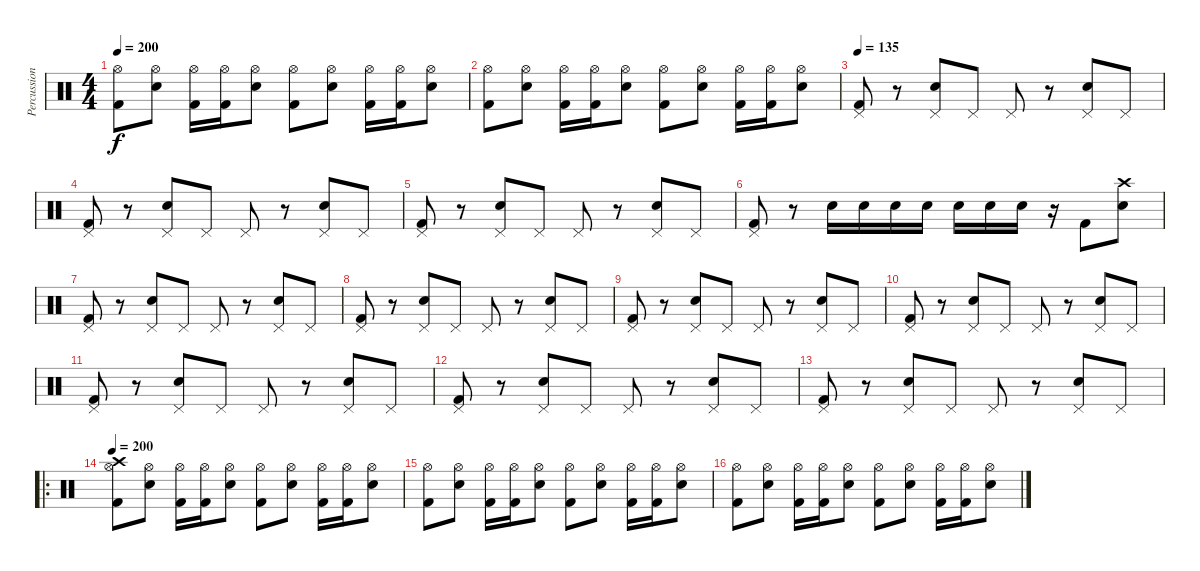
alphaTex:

\track ("Percussions" "Percussion") {instrument percussion}
\staff {score}
\articulation defaults
\ts (4 4)
\tempo 200
\clef neutral
\ks c
("Hi-Hat (open)" "Kick (hit) 2").8{dy f} ("Hi-Hat (open)" "Electric Snare (hit)").8 ("Hi-Hat (open)" "Kick (hit) 2").16 ("Hi-Hat (open)" "Kick (hit) 2").16 ("Hi-Hat (open)" "Electric Snare (hit)").8 ("Hi-Hat (open)" "Kick (hit) 2").8 ("Hi-Hat (open)" "Electric Snare (hit)").8 ("Hi-Hat (open)" "Kick (hit) 2").16 ("Hi-Hat (open)" "Kick (hit) 2").16 ("Hi-Hat (open)" "Electric Snare (hit)").8 |
("Hi-Hat (open)" "Kick (hit) 2").8 ("Hi-Hat (open)" "Electric Snare (hit)").8 ("Hi-Hat (open)" "Kick (hit) 2").16 ("Hi-Hat (open)" "Kick (hit) 2").16 ("Hi-Hat (open)" "Electric Snare (hit)").8 ("Hi-Hat (open)" "Kick (hit) 2").8 ("Hi-Hat (open)" "Electric Snare (hit)").8 ("Hi-Hat (open)" "Kick (hit) 2").16 ("Hi-Hat (open)" "Kick (hit) 2").16 ("Hi-Hat (open)" "Electric Snare (hit)").8 |
\tempo 135
("Pedal Hi-Hat (hit)" "Kick (hit) 2").8 r.8 ("Pedal Hi-Hat (hit)" "Electric Snare (hit)").8 "Pedal Hi-Hat (hit)".8 "Pedal Hi-Hat (hit)".8 r.8 ("Pedal Hi-Hat (hit)" "Electric Snare (hit)").8 "Pedal Hi-Hat (hit)".8 |
("Pedal Hi-Hat (hit)" "Kick (hit) 2").8 r.8 ("Pedal Hi-Hat (hit)" "Electric Snare (hit)").8 "Pedal Hi-Hat (hit)".8 "Pedal Hi-Hat (hit)".8 r.8 ("Pedal Hi-Hat (hit)" "Electric Snare (hit)").8 "Pedal Hi-Hat (hit)".8 |
("Pedal Hi-Hat (hit)" "Kick (hit) 2").8 r.8 ("Pedal Hi-Hat (hit)" "Electric Snare (hit)").8 "Pedal Hi-Hat (hit)".8 "Pedal Hi-Hat (hit)".8 r.8 ("Pedal Hi-Hat (hit)" "Electric Snare (hit)").8 "Pedal Hi-Hat (hit)".8 |
("Pedal Hi-Hat (hit)" "Kick (hit) 2").8 r.8 "Electric Snare (hit)".16 "Electric Snare (hit)".16 "Electric Snare (hit)".16 "Electric Snare (hit)".16 "Electric Snare (hit)".16 "Electric Snare (hit)".16 "Electric Snare (hit)".16 r.16 "Kick (hit) 2".8 ("Crash high (hit)" "Electric Snare (hit)").8 |
("Pedal Hi-Hat (hit)" "Kick (hit) 2").8 r.8 ("Pedal Hi-Hat (hit)" "Electric Snare (hit)").8 "Pedal Hi-Hat (hit)".8 "Pedal Hi-Hat (hit)".8 r.8 ("Pedal Hi-Hat (hit)" "Electric Snare (hit)").8 "Pedal Hi-Hat (hit)".8 |
("Pedal Hi-Hat (hit)" "Kick (hit) 2").8 r.8 ("Pedal Hi-Hat (hit)" "Electric Snare (hit)").8 "Pedal Hi-Hat (hit)".8 "Pedal Hi-Hat (hit)".8 r.8 ("Pedal Hi-Hat (hit)" "Electric Snare (hit)").8 "Pedal Hi-Hat (hit)".8 |
("Pedal Hi-Hat (hit)" "Kick (hit) 2").8 r.8 ("Pedal Hi-Hat (hit)" "Electric Snare (hit)").8 "Pedal Hi-Hat (hit)".8 "Pedal Hi-Hat (hit)".8 r.8 ("Pedal Hi-Hat (hit)" "Electric Snare (hit)").8 "Pedal Hi-Hat (hit)".8 |
("Pedal Hi-Hat (hit)" "Kick (hit) 2").8 r.8 ("Pedal Hi-Hat (hit)" "Electric Snare (hit)").8 "Pedal Hi-Hat (hit)".8 "Pedal Hi-Hat (hit)".8 r.8 ("Pedal Hi-Hat (hit)" "Electric Snare (hit)").8 "Pedal Hi-Hat (hit)".8 |
("Pedal Hi-Hat (hit)" "Kick (hit) 2").8 r.8 ("Pedal Hi-Hat (hit)" "Electric Snare (hit)").8 "Pedal Hi-Hat (hit)".8 "Pedal Hi-Hat (hit)".8 r.8 ("Pedal Hi-Hat (hit)" "Electric Snare (hit)").8 "Pedal Hi-Hat (hit)".8 |
("Pedal Hi-Hat (hit)" "Kick (hit) 2").8 r.8 ("Pedal Hi-Hat (hit)" "Electric Snare (hit)").8 "Pedal Hi-Hat (hit)".8 "Pedal Hi-Hat (hit)".8 r.8 ("Pedal Hi-Hat (hit)" "Electric Snare (hit)").8 "Pedal Hi-Hat (hit)".8 |
("Pedal Hi-Hat (hit)" "Kick (hit) 2").8 r.8 ("Pedal Hi-Hat (hit)" "Electric Snare (hit)").8 "Pedal Hi-Hat (hit)".8 "Pedal Hi-Hat (hit)".8 r.8 ("Pedal Hi-Hat (hit)" "Electric Snare (hit)").8 "Pedal Hi-Hat (hit)".8 |
\ro
\tempo 200
("Crash high (hit)" "Hi-Hat (open)" "Kick (hit) 2").8 ("Hi-Hat (open)" "Electric Snare (hit)").8 ("Hi-Hat (open)" "Kick (hit) 2").16 ("Hi-Hat (open)" "Kick (hit) 2").16 ("Hi-Hat (open)" "Electric Snare (hit)").8 ("Hi-Hat (open)" "Kick (hit) 2").8 ("Hi-Hat (open)" "Electric Snare (hit)").8 ("Hi-Hat (open)" "Kick (hit) 2").16 ("Hi-Hat (open)" "Kick (hit) 2").16 ("Hi-Hat (open)" "Electric Snare (hit)").8 |
("Hi-Hat (open)" "Kick (hit) 2").8 ("Hi-Hat (open)" "Electric Snare (hit)").8 ("Hi-Hat (open)" "Kick (hit) 2").16 ("Hi-Hat (open)" "Kick (hit) 2").16 ("Hi-Hat (open)" "Electric Snare (hit)").8 ("Hi-Hat (open)" "Kick (hit) 2").8 ("Hi-Hat (open)" "Electric Snare (hit)").8 ("Hi-Hat (open)" "Kick (hit) 2").16 ("Hi-Hat (open)" "Kick (hit) 2").16 ("Hi-Hat (open)" "Electric Snare (hit)").8 |
("Hi-Hat (open)" "Kick (hit) 2").8 ("Hi-Hat (open)" "Electric Snare (hit)").8 ("Hi-Hat (open)" "Kick (hit) 2").16 ("Hi-Hat (open)" "Kick (hit) 2").16 ("Hi-Hat (open)" "Electric Snare (hit)").8 ("Hi-Hat (open)" "Kick (hit) 2").8 ("Hi-Hat (open)" "Electric Snare (hit)").8 ("Hi-Hat (open)" "Kick (hit) 2").16 ("Hi-Hat (open)" "Kick (hit) 2").16 ("Hi-Hat (open)" "Electric Snare (hit)").8
